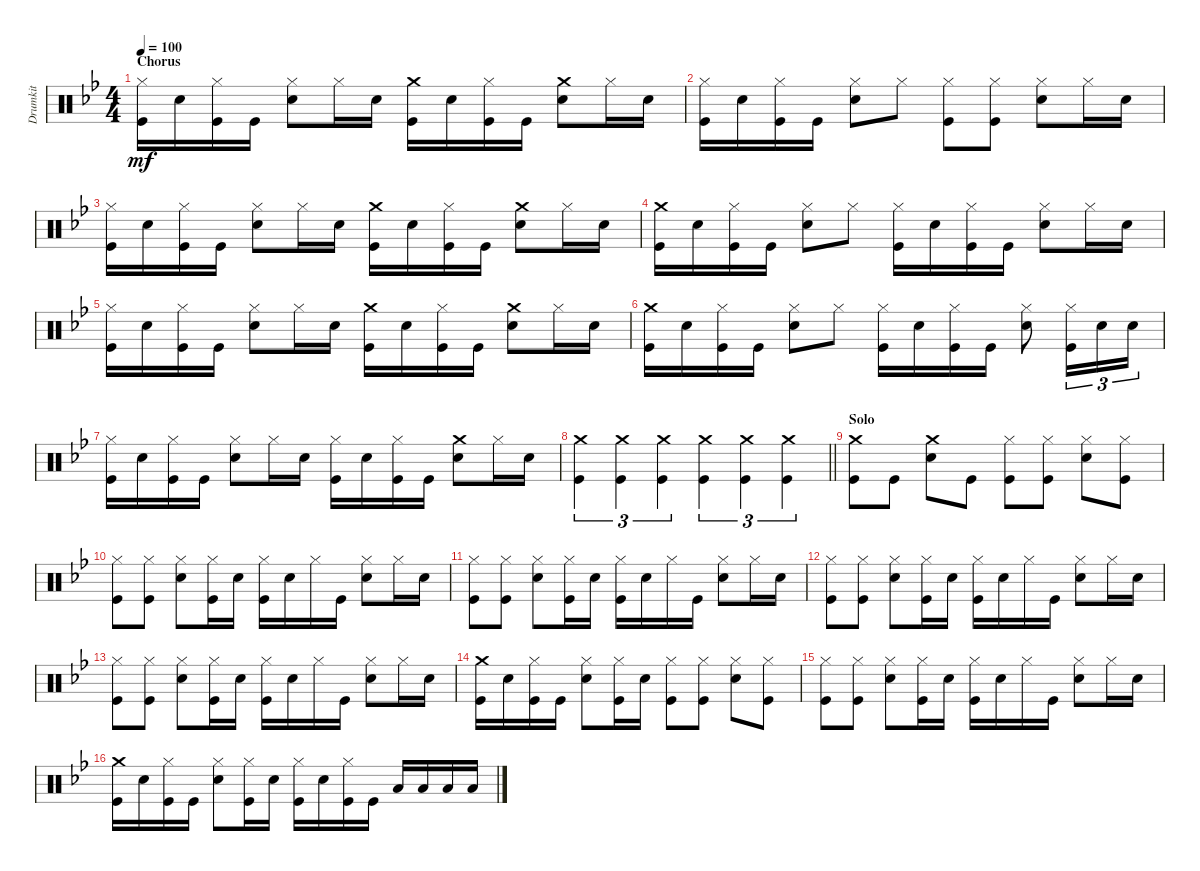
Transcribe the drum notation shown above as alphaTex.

\track ("Drumkit" "Drumkit") {instrument percussion}
\staff {score}
\articulation defaults
\ts (4 4)
\section ("" "Chorus")
\tempo 100
\clef neutral
\ks bb
("Kick (hit)" "Hi-Hat (closed)").16{dy mf} "Snare (hit) 2".16 ("Kick (hit)" "Hi-Hat (closed)").16 "Kick (hit)".16 ("Snare (hit) 2" "Hi-Hat (closed)").8 "Hi-Hat (closed)".16 "Snare (hit) 2".16 ("Kick (hit)" "Crash medium (hit)").16 "Snare (hit) 2".16 ("Kick (hit)" "Hi-Hat (closed)").16 "Kick (hit)".16 ("Snare (hit) 2" "Crash medium (hit)").8 "Hi-Hat (closed)".16 "Snare (hit) 2".16 |
("Kick (hit)" "Hi-Hat (closed)").16 "Snare (hit) 2".16 ("Kick (hit)" "Hi-Hat (closed)").16 "Kick (hit)".16 ("Snare (hit) 2" "Hi-Hat (closed)").8 "Hi-Hat (closed)".8 ("Kick (hit)" "Hi-Hat (closed)").8 ("Hi-Hat (closed)" "Kick (hit)").8 ("Snare (hit) 2" "Hi-Hat (closed)").8 "Hi-Hat (closed)".16 "Snare (hit) 2".16 |
("Kick (hit)" "Hi-Hat (closed)").16 "Snare (hit) 2".16 ("Kick (hit)" "Hi-Hat (closed)").16 "Kick (hit)".16 ("Snare (hit) 2" "Hi-Hat (closed)").8 "Hi-Hat (closed)".16 "Snare (hit) 2".16 ("Kick (hit)" "Crash medium (hit)").16 "Snare (hit) 2".16 ("Kick (hit)" "Hi-Hat (closed)").16 "Kick (hit)".16 ("Snare (hit) 2" "Crash medium (hit)").8 "Hi-Hat (closed)".16 "Snare (hit) 2".16 |
("Kick (hit)" "Crash medium (hit)").16 "Snare (hit) 2".16 ("Kick (hit)" "Hi-Hat (closed)").16 "Kick (hit)".16 ("Snare (hit) 2" "Hi-Hat (closed)").8 "Hi-Hat (closed)".8 ("Kick (hit)" "Hi-Hat (closed)").16 "Snare (hit) 2".16 ("Kick (hit)" "Hi-Hat (closed)").16 "Kick (hit)".16 ("Snare (hit) 2" "Hi-Hat (closed)").8 "Hi-Hat (closed)".16 "Snare (hit) 2".16 |
("Kick (hit)" "Hi-Hat (closed)").16 "Snare (hit) 2".16 ("Kick (hit)" "Hi-Hat (closed)").16 "Kick (hit)".16 ("Snare (hit) 2" "Hi-Hat (closed)").8 "Hi-Hat (closed)".16 "Snare (hit) 2".16 ("Kick (hit)" "Crash medium (hit)").16 "Snare (hit) 2".16 ("Kick (hit)" "Hi-Hat (closed)").16 "Kick (hit)".16 ("Snare (hit) 2" "Crash medium (hit)").8 "Hi-Hat (closed)".16 "Snare (hit) 2".16 |
("Kick (hit)" "Crash medium (hit)").16 "Snare (hit) 2".16 ("Kick (hit)" "Hi-Hat (closed)").16 "Kick (hit)".16 ("Snare (hit) 2" "Hi-Hat (closed)").8 "Hi-Hat (closed)".8 ("Kick (hit)" "Hi-Hat (closed)").16 "Snare (hit) 2".16 ("Kick (hit)" "Hi-Hat (closed)").16 "Kick (hit)".16 ("Snare (hit) 2" "Hi-Hat (closed)").8 ("Kick (hit)" "Hi-Hat (closed)").16{tu (3 2)} "Snare (hit) 2".16{tu (3 2)} "Snare (hit) 2".16{tu (3 2)} |
("Kick (hit)" "Hi-Hat (closed)").16 "Snare (hit) 2".16 ("Kick (hit)" "Hi-Hat (closed)").16 "Kick (hit)".16 ("Snare (hit) 2" "Hi-Hat (closed)").8 "Hi-Hat (closed)".16 "Snare (hit) 2".16 ("Kick (hit)" "Hi-Hat (closed)").16 "Snare (hit) 2".16 ("Kick (hit)" "Hi-Hat (closed)").16 "Kick (hit)".16 ("Snare (hit) 2" "Crash medium (hit)").8 "Hi-Hat (closed)".16 "Snare (hit) 2".16 |
\barLineRight lightlight
("Crash medium (hit)" "Kick (hit)").4{tu (3 2)} ("Crash medium (hit)" "Kick (hit)").4{tu (3 2)} ("Crash medium (hit)" "Kick (hit)").4{tu (3 2)} ("Crash medium (hit)" "Kick (hit)").4{tu (3 2)} ("Crash medium (hit)" "Kick (hit)").4{tu (3 2)} ("Crash medium (hit)" "Kick (hit)").4{tu (3 2)} |
\section ("" "Solo")
("Crash medium (hit)" "Kick (hit)").8 "Kick (hit)".8 ("Crash medium (hit)" "Snare (hit) 2").8 "Kick (hit)".8 ("Kick (hit)" "Hi-Hat (closed)").8 ("Kick (hit)" "Hi-Hat (closed)").8 ("Snare (hit) 2" "Hi-Hat (closed)").8 ("Hi-Hat (closed)" "Kick (hit)").8 |
("Hi-Hat (closed)" "Kick (hit)").8 ("Hi-Hat (closed)" "Kick (hit)").8 ("Snare (hit) 2" "Hi-Hat (closed)").8 ("Kick (hit)" "Hi-Hat (closed)").16 "Snare (hit) 2".16 ("Kick (hit)" "Hi-Hat (closed)").16 "Snare (hit) 2".16 "Hi-Hat (closed)".16 "Kick (hit)".16 ("Snare (hit) 2" "Hi-Hat (closed)").8 "Hi-Hat (closed)".16 "Snare (hit) 2".16 |
("Hi-Hat (closed)" "Kick (hit)").8 ("Hi-Hat (closed)" "Kick (hit)").8 ("Snare (hit) 2" "Hi-Hat (closed)").8 ("Kick (hit)" "Hi-Hat (closed)").16 "Snare (hit) 2".16 ("Kick (hit)" "Hi-Hat (closed)").16 "Snare (hit) 2".16 "Hi-Hat (closed)".16 "Kick (hit)".16 ("Snare (hit) 2" "Hi-Hat (closed)").8 "Hi-Hat (closed)".16 "Snare (hit) 2".16 |
("Hi-Hat (closed)" "Kick (hit)").8 ("Hi-Hat (closed)" "Kick (hit)").8 ("Snare (hit) 2" "Hi-Hat (closed)").8 ("Kick (hit)" "Hi-Hat (closed)").16 "Snare (hit) 2".16 ("Kick (hit)" "Hi-Hat (closed)").16 "Snare (hit) 2".16 "Hi-Hat (closed)".16 "Kick (hit)".16 ("Snare (hit) 2" "Hi-Hat (closed)").8 "Hi-Hat (closed)".16 "Snare (hit) 2".16 |
("Hi-Hat (closed)" "Kick (hit)").8 ("Hi-Hat (closed)" "Kick (hit)").8 ("Snare (hit) 2" "Hi-Hat (closed)").8 ("Kick (hit)" "Hi-Hat (closed)").16 "Snare (hit) 2".16 ("Kick (hit)" "Hi-Hat (closed)").16 "Snare (hit) 2".16 "Hi-Hat (closed)".16 "Kick (hit)".16 ("Snare (hit) 2" "Hi-Hat (closed)").8 "Hi-Hat (closed)".16 "Snare (hit) 2".16 |
("Crash medium (hit)" "Kick (hit)").16 "Snare (hit) 2".16 ("Kick (hit)" "Hi-Hat (closed)").16 "Kick (hit)".16 ("Snare (hit) 2" "Hi-Hat (closed)").8 ("Kick (hit)" "Hi-Hat (closed)").16 "Snare (hit) 2".16 ("Kick (hit)" "Hi-Hat (closed)").8 ("Kick (hit)" "Hi-Hat (closed)").8 ("Hi-Hat (closed)" "Snare (hit) 2").8 ("Kick (hit)" "Hi-Hat (closed)").8 |
("Hi-Hat (closed)" "Kick (hit)").8 ("Hi-Hat (closed)" "Kick (hit)").8 ("Snare (hit) 2" "Hi-Hat (closed)").8 ("Kick (hit)" "Hi-Hat (closed)").16 "Snare (hit) 2".16 ("Kick (hit)" "Hi-Hat (closed)").16 "Snare (hit) 2".16 "Hi-Hat (closed)".16 "Kick (hit)".16 ("Snare (hit) 2" "Hi-Hat (closed)").8 "Hi-Hat (closed)".16 "Snare (hit) 2".16 |
("Crash medium (hit)" "Kick (hit)").16 "Snare (hit) 2".16 ("Hi-Hat (closed)" "Kick (hit)").16 "Kick (hit)".16 ("Snare (hit) 2" "Hi-Hat (closed)").8 ("Kick (hit)" "Hi-Hat (closed)").16 "Snare (hit) 2".16 ("Hi-Hat (closed)" "Kick (hit)").16 "Snare (hit) 2".16 ("Kick (hit)" "Hi-Hat (closed)").16 "Kick (hit)".16 "Low Tom (hit)".16 "Low Tom (hit)".16 "Low Floor Tom (hit)".16 "Low Floor Tom (hit)".16
